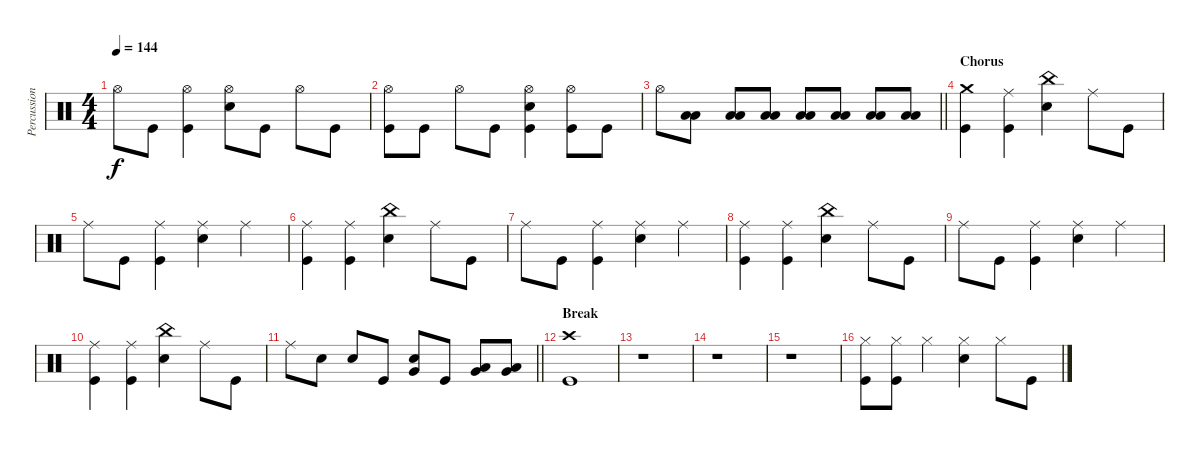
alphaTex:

\track ("Percussion" "Percussion") {instrument percussion}
\staff {score}
\articulation defaults
\ts (4 4)
\tempo 144
\clef neutral
\ks c "Hi-Hat (open)".8{dy f} "Kick (hit)".8
("Hi-Hat (open)" "Kick (hit)").4 ("Hi-Hat (open)" "Electric Snare (hit)").8 "Kick (hit)".8 "Hi-Hat (open)".8 "Kick (hit)".8 |
("Hi-Hat (open)" "Kick (hit)").8 "Kick (hit)".8 "Hi-Hat (open)".8 "Kick (hit)".8 ("Hi-Hat (open)" "Electric Snare (hit)" "Kick (hit)").4 ("Hi-Hat (open)" "Kick (hit)").8 "Kick (hit)".8 |
\barLineRight lightlight "Hi-Hat (open)".8
("Low Tom (hit)" "Low Floor Tom (hit)").8 ("Low Tom (hit)" "Low Floor Tom (hit)").8 ("Low Tom (hit)" "Low Floor Tom (hit)").8 ("Low Tom (hit)" "Low Floor Tom (hit)").8 ("Low Tom (hit)" "Low Floor Tom (hit)").8 ("Low Tom (hit)" "Low Floor Tom (hit)").8 ("Low Tom (hit)" "Low Floor Tom (hit)").8 |
\section ("" "Chorus")
("Crash medium (hit)" "Kick (hit)").4 ("Ride (middle)" "Kick (hit)").4 ("China (hit)" "Electric Snare (hit)").4 "Ride (middle)".8 "Kick (hit)".8 |
"Ride (middle)".8 "Kick (hit)".8 ("Ride (middle)" "Kick (hit)").4 ("Ride (middle)" "Electric Snare (hit)").4 "Ride (middle)".4 |
("Ride (middle)" "Kick (hit)").4 ("Ride (middle)" "Kick (hit)").4 ("China (hit)" "Electric Snare (hit)").4 "Ride (middle)".8 "Kick (hit)".8 |
"Ride (middle)".8 "Kick (hit)".8 ("Ride (middle)" "Kick (hit)").4 ("Ride (middle)" "Electric Snare (hit)").4 "Ride (middle)".4 |
("Ride (middle)" "Kick (hit)").4 ("Ride (middle)" "Kick (hit)").4 ("China (hit)" "Electric Snare (hit)").4 "Ride (middle)".8 "Kick (hit)".8 |
"Ride (middle)".8 "Kick (hit)".8 ("Ride (middle)" "Kick (hit)").4 ("Ride (middle)" "Electric Snare (hit)").4 "Ride (middle)".4 |
("Ride (middle)" "Kick (hit)").4 ("Ride (middle)" "Kick (hit)").4 ("China (hit)" "Electric Snare (hit)").4 "Ride (middle)".8 "Kick (hit)".8 |
\barLineRight lightlight "Ride (middle)".8 "Electric Snare (hit)".8 "Electric Snare (hit)".8 "Kick (hit)".8
("Electric Snare (hit)" "Very Low Tom (hit)").8 "Kick (hit)".8 ("Very Low Tom (hit)" "Low Floor Tom (hit)").8 ("Very Low Tom (hit)" "Low Floor Tom (hit)").8 |
\section ("" "Break")
("Crash high (hit)" "Kick (hit)").1 |
r.1 |
r.1 |
r.1 |
("Hi-Hat (closed)" "Kick (hit)").8 ("Hi-Hat (closed)" "Kick (hit)").8 "Hi-Hat (closed)".4 ("Hi-Hat (closed)" "Electric Snare (hit)").4 "Hi-Hat (closed)".8 "Kick (hit)".8
